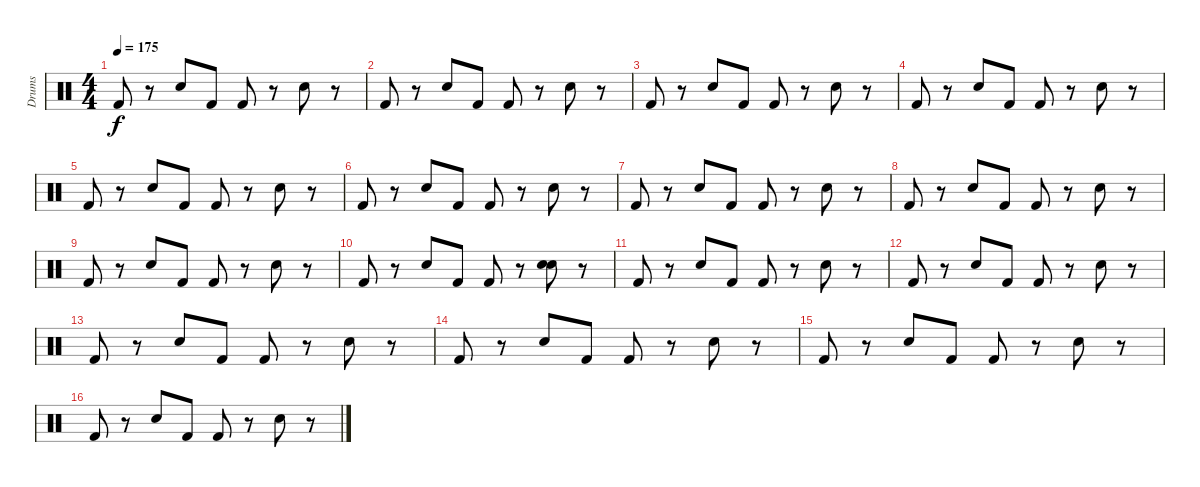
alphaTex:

\track ("Drums" "Drums") {instrument percussion}
\staff {score}
\articulation defaults
\ts (4 4)
\tempo 175
\clef neutral
\ks c "Kick (hit) 2".8{dy f}
r.8 "Electric Snare (hit)".8 "Kick (hit) 2".8 "Kick (hit) 2".8 r.8 "Electric Snare (hit)".8 r.8 |
"Kick (hit) 2".8 r.8 "Electric Snare (hit)".8 "Kick (hit) 2".8 "Kick (hit) 2".8 r.8 "Electric Snare (hit)".8 r.8 |
"Kick (hit) 2".8 r.8 "Electric Snare (hit)".8 "Kick (hit) 2".8 "Kick (hit) 2".8 r.8 "Electric Snare (hit)".8 r.8 |
"Kick (hit) 2".8 r.8 "Electric Snare (hit)".8 "Kick (hit) 2".8 "Kick (hit) 2".8 r.8 "Electric Snare (hit)".8 r.8 |
"Kick (hit) 2".8 r.8 "Electric Snare (hit)".8 "Kick (hit) 2".8 "Kick (hit) 2".8 r.8 "Electric Snare (hit)".8 r.8 |
"Kick (hit) 2".8 r.8 "Electric Snare (hit)".8 "Kick (hit) 2".8 "Kick (hit) 2".8 r.8 "Electric Snare (hit)".8 r.8 |
"Kick (hit) 2".8 r.8 "Electric Snare (hit)".8 "Kick (hit) 2".8 "Kick (hit) 2".8 r.8 "Electric Snare (hit)".8 r.8 |
"Kick (hit) 2".8 r.8 "Electric Snare (hit)".8 "Kick (hit) 2".8 "Kick (hit) 2".8 r.8 "Electric Snare (hit)".8 r.8 |
"Kick (hit) 2".8 r.8 "Electric Snare (hit)".8 "Kick (hit) 2".8 "Kick (hit) 2".8 r.8 "Electric Snare (hit)".8 r.8 |
"Kick (hit) 2".8 r.8 "Electric Snare (hit)".8 "Kick (hit) 2".8 "Kick (hit) 2".8 r.8 ("Snare (hit) 2" "Electric Snare (hit)").8 r.8 |
"Kick (hit) 2".8 r.8 "Electric Snare (hit)".8 "Kick (hit) 2".8 "Kick (hit) 2".8 r.8 "Electric Snare (hit)".8 r.8 |
"Kick (hit) 2".8 r.8 "Electric Snare (hit)".8 "Kick (hit) 2".8 "Kick (hit) 2".8 r.8 "Electric Snare (hit)".8 r.8 |
"Kick (hit) 2".8 r.8 "Electric Snare (hit)".8 "Kick (hit) 2".8 "Kick (hit) 2".8 r.8 "Electric Snare (hit)".8 r.8 |
"Kick (hit) 2".8 r.8 "Electric Snare (hit)".8 "Kick (hit) 2".8 "Kick (hit) 2".8 r.8 "Electric Snare (hit)".8 r.8 |
"Kick (hit) 2".8 r.8 "Electric Snare (hit)".8 "Kick (hit) 2".8 "Kick (hit) 2".8 r.8 "Electric Snare (hit)".8 r.8 |
"Kick (hit) 2".8 r.8 "Electric Snare (hit)".8 "Kick (hit) 2".8 "Kick (hit) 2".8 r.8 "Electric Snare (hit)".8 r.8
